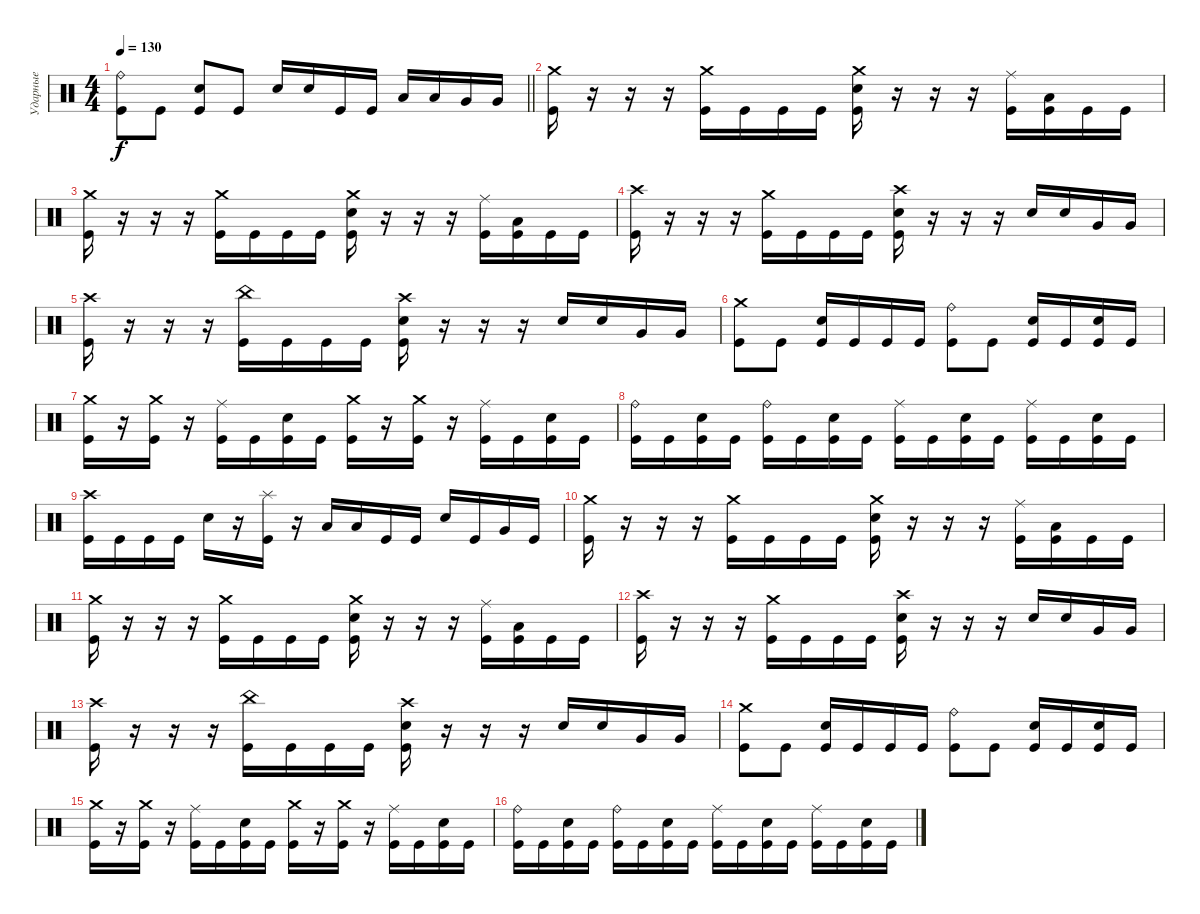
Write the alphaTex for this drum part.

\track ("Ударные" "Ударные") {instrument percussion}
\staff {score}
\articulation defaults
\ts (4 4)
\tempo 130
\clef neutral
\barLineRight lightlight
\ks c
("Ride (bell)" "Kick (hit)").8{dy f} "Kick (hit)".8 ("Electric Snare (hit)" "Kick (hit)").8 "Kick (hit)".8 "Electric Snare (hit)".16 "Electric Snare (hit)".16 "Kick (hit)".16 "Kick (hit)".16 "Low Floor Tom (hit)".16 "Low Floor Tom (hit)".16 "Very Low Tom (hit)".16 "Very Low Tom (hit)".16 |
\section ("" " ")
("Crash medium (hit)" "Kick (hit)").16 r.16 r.16 r.16 ("Crash medium (hit)" "Kick (hit)").16 "Kick (hit)".16 "Kick (hit)".16 "Kick (hit)".16 ("Crash medium (hit)" "Electric Snare (hit)" "Kick (hit)").16 r.16 r.16 r.16 ("Ride (middle)" "Kick (hit)").16 ("Low Tom (hit)" "Kick (hit)").16 "Kick (hit)".16 "Kick (hit)".16 |
("Crash medium (hit)" "Kick (hit)").16 r.16 r.16 r.16 ("Crash medium (hit)" "Kick (hit)").16 "Kick (hit)".16 "Kick (hit)".16 "Kick (hit)".16 ("Crash medium (hit)" "Electric Snare (hit)" "Kick (hit)").16 r.16 r.16 r.16 ("Ride (middle)" "Kick (hit)").16 ("Low Tom (hit)" "Kick (hit)").16 "Kick (hit)".16 "Kick (hit)".16 |
("Crash high (hit)" "Kick (hit)").16 r.16 r.16 r.16 ("Crash medium (hit)" "Kick (hit)").16 "Kick (hit)".16 "Kick (hit)".16 "Kick (hit)".16 ("Crash high (hit)" "Electric Snare (hit)" "Kick (hit)").16 r.16 r.16 r.16 "Electric Snare (hit)".16 "Electric Snare (hit)".16 "Very Low Tom (hit)".16 "Very Low Tom (hit)".16 |
("Crash high (hit)" "Kick (hit)").16 r.16 r.16 r.16 ("China (hit)" "Kick (hit)").16 "Kick (hit)".16 "Kick (hit)".16 "Kick (hit)".16 ("Crash high (hit)" "Electric Snare (hit)" "Kick (hit)").16 r.16 r.16 r.16 "Electric Snare (hit)".16 "Electric Snare (hit)".16 "Very Low Tom (hit)".16 "Very Low Tom (hit)".16 |
("Crash medium (hit)" "Kick (hit)").8 "Kick (hit)".8 ("Electric Snare (hit)" "Kick (hit)").16 "Kick (hit)".16 "Kick (hit)".16 "Kick (hit)".16 ("Ride (bell)" "Kick (hit)").8 "Kick (hit)".8 ("Electric Snare (hit)" "Kick (hit)").16 "Kick (hit)".16 ("Electric Snare (hit)" "Kick (hit)").16 "Kick (hit)".16 |
("Crash medium (hit)" "Kick (hit)").16 r.16 ("Crash medium (hit)" "Kick (hit)").16 r.16 ("Ride (middle)" "Kick (hit)").16 "Kick (hit)".16 ("Electric Snare (hit)" "Kick (hit)").16 "Kick (hit)".16 ("Crash medium (hit)" "Kick (hit)").16 r.16 ("Crash medium (hit)" "Kick (hit)").16 r.16 ("Ride (middle)" "Kick (hit)").16 "Kick (hit)".16 ("Electric Snare (hit)" "Kick (hit)").16 "Kick (hit)".16 |
("Ride (bell)" "Kick (hit)").16 "Kick (hit)".16 ("Electric Snare (hit)" "Kick (hit)").16 "Kick (hit)".16 ("Ride (bell)" "Kick (hit)").16 "Kick (hit)".16 ("Electric Snare (hit)" "Kick (hit)").16 "Kick (hit)".16 ("Ride (middle)" "Kick (hit)").16 "Kick (hit)".16 ("Electric Snare (hit)" "Kick (hit)").16 "Kick (hit)".16 ("Ride (middle)" "Kick (hit)").16 "Kick (hit)".16 ("Electric Snare (hit)" "Kick (hit)").16 "Kick (hit)".16 |
("Crash high (hit)" "Kick (hit)").16 "Kick (hit)".16 "Kick (hit)".16 "Kick (hit)".16 "Electric Snare (hit)".16 r.16 ("Splash (hit)" "Kick (hit)").16 r.16 "Low Tom (hit)".16 "Low Tom (hit)".16 "Kick (hit)".16 "Kick (hit)".16 "Electric Snare (hit)".16 "Kick (hit)".16 "Very Low Tom (hit)".16 "Kick (hit)".16 |
("Crash medium (hit)" "Kick (hit)").16 r.16 r.16 r.16 ("Crash medium (hit)" "Kick (hit)").16 "Kick (hit)".16 "Kick (hit)".16 "Kick (hit)".16 ("Crash medium (hit)" "Electric Snare (hit)" "Kick (hit)").16 r.16 r.16 r.16 ("Ride (middle)" "Kick (hit)").16 ("Low Tom (hit)" "Kick (hit)").16 "Kick (hit)".16 "Kick (hit)".16 |
("Crash medium (hit)" "Kick (hit)").16 r.16 r.16 r.16 ("Crash medium (hit)" "Kick (hit)").16 "Kick (hit)".16 "Kick (hit)".16 "Kick (hit)".16 ("Crash medium (hit)" "Electric Snare (hit)" "Kick (hit)").16 r.16 r.16 r.16 ("Ride (middle)" "Kick (hit)").16 ("Low Tom (hit)" "Kick (hit)").16 "Kick (hit)".16 "Kick (hit)".16 |
("Crash high (hit)" "Kick (hit)").16 r.16 r.16 r.16 ("Crash medium (hit)" "Kick (hit)").16 "Kick (hit)".16 "Kick (hit)".16 "Kick (hit)".16 ("Crash high (hit)" "Electric Snare (hit)" "Kick (hit)").16 r.16 r.16 r.16 "Electric Snare (hit)".16 "Electric Snare (hit)".16 "Very Low Tom (hit)".16 "Very Low Tom (hit)".16 |
("Crash high (hit)" "Kick (hit)").16 r.16 r.16 r.16 ("China (hit)" "Kick (hit)").16 "Kick (hit)".16 "Kick (hit)".16 "Kick (hit)".16 ("Crash high (hit)" "Electric Snare (hit)" "Kick (hit)").16 r.16 r.16 r.16 "Electric Snare (hit)".16 "Electric Snare (hit)".16 "Very Low Tom (hit)".16 "Very Low Tom (hit)".16 |
("Crash medium (hit)" "Kick (hit)").8 "Kick (hit)".8 ("Electric Snare (hit)" "Kick (hit)").16 "Kick (hit)".16 "Kick (hit)".16 "Kick (hit)".16 ("Ride (bell)" "Kick (hit)").8 "Kick (hit)".8 ("Electric Snare (hit)" "Kick (hit)").16 "Kick (hit)".16 ("Electric Snare (hit)" "Kick (hit)").16 "Kick (hit)".16 |
("Crash medium (hit)" "Kick (hit)").16 r.16 ("Crash medium (hit)" "Kick (hit)").16 r.16 ("Ride (middle)" "Kick (hit)").16 "Kick (hit)".16 ("Electric Snare (hit)" "Kick (hit)").16 "Kick (hit)".16 ("Crash medium (hit)" "Kick (hit)").16 r.16 ("Crash medium (hit)" "Kick (hit)").16 r.16 ("Ride (middle)" "Kick (hit)").16 "Kick (hit)".16 ("Electric Snare (hit)" "Kick (hit)").16 "Kick (hit)".16 |
("Ride (bell)" "Kick (hit)").16 "Kick (hit)".16 ("Electric Snare (hit)" "Kick (hit)").16 "Kick (hit)".16 ("Ride (bell)" "Kick (hit)").16 "Kick (hit)".16 ("Electric Snare (hit)" "Kick (hit)").16 "Kick (hit)".16 ("Ride (middle)" "Kick (hit)").16 "Kick (hit)".16 ("Electric Snare (hit)" "Kick (hit)").16 "Kick (hit)".16 ("Ride (middle)" "Kick (hit)").16 "Kick (hit)".16 ("Electric Snare (hit)" "Kick (hit)").16 "Kick (hit)".16
